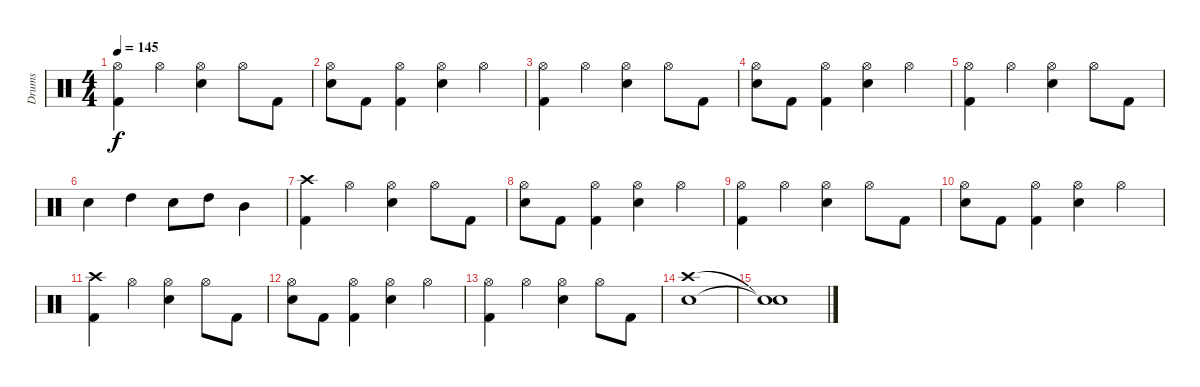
\track ("Drums" "Drums") {instrument percussion}
\staff {score}
\articulation defaults
\ts (4 4)
\tempo 145
\clef neutral
\ks c
("Hi-Hat (open)" "Kick (hit) 2").4{dy f} "Hi-Hat (open)".4 ("Hi-Hat (open)" "Snare (hit) 2").4 "Hi-Hat (open)".8 "Kick (hit) 2".8 |
("Hi-Hat (open)" "Snare (hit) 2").8 "Kick (hit) 2".8 ("Hi-Hat (open)" "Kick (hit) 2").4 ("Hi-Hat (open)" "Snare (hit) 2").4 "Hi-Hat (open)".4 |
("Hi-Hat (open)" "Kick (hit) 2").4 "Hi-Hat (open)".4 ("Hi-Hat (open)" "Snare (hit) 2").4 "Hi-Hat (open)".8 "Kick (hit) 2".8 |
("Hi-Hat (open)" "Snare (hit) 2").8 "Kick (hit) 2".8 ("Hi-Hat (open)" "Kick (hit) 2").4 ("Hi-Hat (open)" "Snare (hit) 2").4 "Hi-Hat (open)".4 |
("Hi-Hat (open)" "Kick (hit) 2").4 "Hi-Hat (open)".4 ("Hi-Hat (open)" "Snare (hit) 2").4 "Hi-Hat (open)".8 "Kick (hit) 2".8 |
"Snare (hit) 2".4 "High Tom (hit)".4 "Snare (hit) 2".8 "High Tom (hit)".8 "Mid Tom (hit)".4 |
("Crash high (hit)" "Kick (hit) 2").4 "Hi-Hat (open)".4 ("Hi-Hat (open)" "Snare (hit) 2").4 "Hi-Hat (open)".8 "Kick (hit) 2".8 |
("Hi-Hat (open)" "Snare (hit) 2").8 "Kick (hit) 2".8 ("Hi-Hat (open)" "Kick (hit) 2").4 ("Hi-Hat (open)" "Snare (hit) 2").4 "Hi-Hat (open)".4 |
("Hi-Hat (open)" "Kick (hit) 2").4 "Hi-Hat (open)".4 ("Hi-Hat (open)" "Snare (hit) 2").4 "Hi-Hat (open)".8 "Kick (hit) 2".8 |
("Hi-Hat (open)" "Snare (hit) 2").8 "Kick (hit) 2".8 ("Hi-Hat (open)" "Kick (hit) 2").4 ("Hi-Hat (open)" "Snare (hit) 2").4 "Hi-Hat (open)".4 |
("Crash high (hit)" "Kick (hit) 2").4 "Hi-Hat (open)".4 ("Hi-Hat (open)" "Snare (hit) 2").4 "Hi-Hat (open)".8 "Kick (hit) 2".8 |
("Hi-Hat (open)" "Snare (hit) 2").8 "Kick (hit) 2".8 ("Hi-Hat (open)" "Kick (hit) 2").4 ("Hi-Hat (open)" "Snare (hit) 2").4 "Hi-Hat (open)".4 |
("Hi-Hat (open)" "Kick (hit) 2").4 "Hi-Hat (open)".4 ("Hi-Hat (open)" "Snare (hit) 2").4 "Hi-Hat (open)".8 "Kick (hit) 2".8 |
("Crash high (hit)" "Snare (hit) 2").1 |
("Snare (hit)"{t} "Snare (hit)"{t}).1
